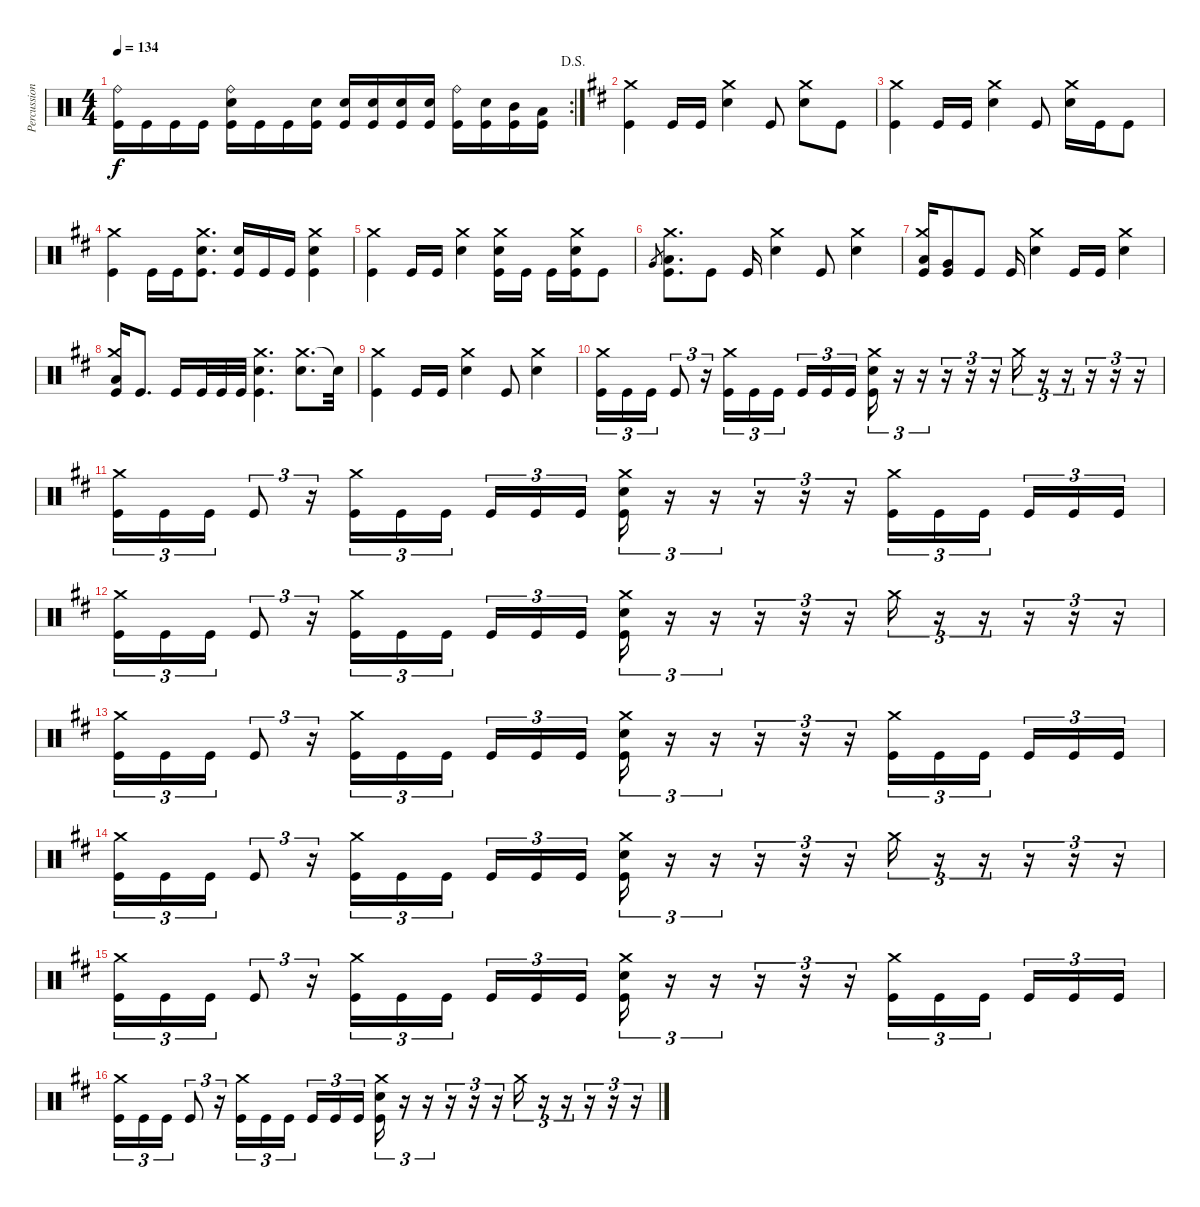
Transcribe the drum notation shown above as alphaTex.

\track ("Percussion" "Percussion") {instrument percussion}
\staff {score}
\articulation defaults
\rc 2
\ts (4 4)
\jump dalsegno
\tempo 134
\clef neutral
\ks c
("Ride (bell)" "Kick (hit)").16{dy f} "Kick (hit)".16 "Kick (hit)".16 "Kick (hit)".16 ("Ride (bell)" "Electric Snare (hit)" "Kick (hit)").16 "Kick (hit)".16 "Kick (hit)".16 ("Electric Snare (hit)" "Kick (hit)").16 ("Electric Snare (hit)" "Kick (hit)").16 ("Electric Snare (hit)" "Kick (hit)").16 ("Electric Snare (hit)" "Kick (hit)").16 ("Electric Snare (hit)" "Kick (hit)").16 ("Ride (bell)" "Kick (hit)").16 ("Electric Snare (hit)" "Kick (hit)").16 ("Mid Tom (hit)" "Kick (hit)").16 ("Low Tom (hit)" "Kick (hit)").16 |
\ks d
("Crash medium (hit)" "Kick (hit)").4 "Kick (hit)".16 "Kick (hit)".16 ("Crash medium (hit)" "Electric Snare (hit)").4 "Kick (hit)".8 ("Crash medium (hit)" "Electric Snare (hit)").8 "Kick (hit)".8 |
("Crash medium (hit)" "Kick (hit)").4 "Kick (hit)".16 "Kick (hit)".16 ("Crash medium (hit)" "Electric Snare (hit)").4 "Kick (hit)".8 ("Crash medium (hit)" "Electric Snare (hit)").16 "Kick (hit)".16 "Kick (hit)".8 |
("Crash medium (hit)" "Kick (hit)").4 "Kick (hit)".16 "Kick (hit)".16 ("Crash medium (hit)" "Electric Snare (hit)" "Kick (hit)").8{d} ("Electric Snare (hit)" "Kick (hit)").16 "Kick (hit)".16 "Kick (hit)".16 ("Crash medium (hit)" "Electric Snare (hit)" "Kick (hit)").4 |
("Crash medium (hit)" "Kick (hit)").4 "Kick (hit)".16 "Kick (hit)".16 ("Crash medium (hit)" "Electric Snare (hit)").4 ("Crash medium (hit)" "Electric Snare (hit)" "Kick (hit)").16 "Kick (hit)".16 "Kick (hit)".16 ("Crash medium (hit)" "Electric Snare (hit)" "Kick (hit)").16 "Kick (hit)".8 |
"Very Low Tom (hit)".8{gr} ("Crash medium (hit)" "Low Tom (hit)" "Kick (hit)").8{d} "Kick (hit)".8 "Kick (hit)".16 ("Crash medium (hit)" "Electric Snare (hit)").4 "Kick (hit)".8 ("Crash medium (hit)" "Electric Snare (hit)").4 |
("Crash medium (hit)" "Low Floor Tom (hit)" "Kick (hit)").16 ("Very Low Tom (hit)" "Kick (hit)").8 "Kick (hit)".8 "Kick (hit)".16 ("Crash medium (hit)" "Electric Snare (hit)").4 "Kick (hit)".16 "Kick (hit)".16 ("Crash medium (hit)" "Electric Snare (hit)").4 |
("Crash medium (hit)" "Low Floor Tom (hit)" "Kick (hit)").16 "Kick (hit)".8{d} "Kick (hit)".16 "Kick (hit)".32 "Kick (hit)".32 "Kick (hit)".32 ("Crash medium (hit)" "Electric Snare (hit)" "Kick (hit)").4{d} ("Crash medium (hit)" "Electric Snare (hit)").8{d} "Snare (hit)"{t}.32 |
("Crash medium (hit)" "Kick (hit)").4 "Kick (hit)".16 "Kick (hit)".16 ("Crash medium (hit)" "Electric Snare (hit)").4 "Kick (hit)".8 ("Crash medium (hit)" "Electric Snare (hit)").4 |
("Crash medium (hit)" "Kick (hit)").16{tu (3 2)} "Kick (hit)".16{tu (3 2)} "Kick (hit)".16{tu (3 2)} "Kick (hit)".8{tu (3 2)} r.16{tu (3 2)} ("Crash medium (hit)" "Kick (hit)").16{tu (3 2)} "Kick (hit)".16{tu (3 2)} "Kick (hit)".16{tu (3 2) beam splitsecondary} "Kick (hit)".16{tu (3 2)} "Kick (hit)".16{tu (3 2)} "Kick (hit)".16{tu (3 2)} ("Crash medium (hit)" "Electric Snare (hit)" "Kick (hit)").16{tu (3 2)} r.16{tu (3 2)} r.16{tu (3 2)} r.16{tu (3 2)} r.16{tu (3 2)} r.16{tu (3 2)} "Crash medium (hit)".16{tu (3 2)} r.16{tu (3 2)} r.16{tu (3 2)} r.16{tu (3 2)} r.16{tu (3 2)} r.16{tu (3 2)} |
("Crash medium (hit)" "Kick (hit)").16{tu (3 2)} "Kick (hit)".16{tu (3 2)} "Kick (hit)".16{tu (3 2)} "Kick (hit)".8{tu (3 2)} r.16{tu (3 2)} ("Crash medium (hit)" "Kick (hit)").16{tu (3 2)} "Kick (hit)".16{tu (3 2)} "Kick (hit)".16{tu (3 2) beam splitsecondary} "Kick (hit)".16{tu (3 2)} "Kick (hit)".16{tu (3 2)} "Kick (hit)".16{tu (3 2)} ("Crash medium (hit)" "Electric Snare (hit)" "Kick (hit)").16{tu (3 2)} r.16{tu (3 2)} r.16{tu (3 2)} r.16{tu (3 2)} r.16{tu (3 2)} r.16{tu (3 2)} ("Crash medium (hit)" "Kick (hit)").16{tu (3 2)} "Kick (hit)".16{tu (3 2)} "Kick (hit)".16{tu (3 2) beam splitsecondary} "Kick (hit)".16{tu (3 2)} "Kick (hit)".16{tu (3 2)} "Kick (hit)".16{tu (3 2)} |
("Crash medium (hit)" "Kick (hit)").16{tu (3 2)} "Kick (hit)".16{tu (3 2)} "Kick (hit)".16{tu (3 2)} "Kick (hit)".8{tu (3 2)} r.16{tu (3 2)} ("Crash medium (hit)" "Kick (hit)").16{tu (3 2)} "Kick (hit)".16{tu (3 2)} "Kick (hit)".16{tu (3 2) beam splitsecondary} "Kick (hit)".16{tu (3 2)} "Kick (hit)".16{tu (3 2)} "Kick (hit)".16{tu (3 2)} ("Crash medium (hit)" "Electric Snare (hit)" "Kick (hit)").16{tu (3 2)} r.16{tu (3 2)} r.16{tu (3 2)} r.16{tu (3 2)} r.16{tu (3 2)} r.16{tu (3 2)} "Crash medium (hit)".16{tu (3 2)} r.16{tu (3 2)} r.16{tu (3 2)} r.16{tu (3 2)} r.16{tu (3 2)} r.16{tu (3 2)} |
("Crash medium (hit)" "Kick (hit)").16{tu (3 2)} "Kick (hit)".16{tu (3 2)} "Kick (hit)".16{tu (3 2)} "Kick (hit)".8{tu (3 2)} r.16{tu (3 2)} ("Crash medium (hit)" "Kick (hit)").16{tu (3 2)} "Kick (hit)".16{tu (3 2)} "Kick (hit)".16{tu (3 2) beam splitsecondary} "Kick (hit)".16{tu (3 2)} "Kick (hit)".16{tu (3 2)} "Kick (hit)".16{tu (3 2)} ("Crash medium (hit)" "Electric Snare (hit)" "Kick (hit)").16{tu (3 2)} r.16{tu (3 2)} r.16{tu (3 2)} r.16{tu (3 2)} r.16{tu (3 2)} r.16{tu (3 2)} ("Crash medium (hit)" "Kick (hit)").16{tu (3 2)} "Kick (hit)".16{tu (3 2)} "Kick (hit)".16{tu (3 2) beam splitsecondary} "Kick (hit)".16{tu (3 2)} "Kick (hit)".16{tu (3 2)} "Kick (hit)".16{tu (3 2)} |
("Crash medium (hit)" "Kick (hit)").16{tu (3 2)} "Kick (hit)".16{tu (3 2)} "Kick (hit)".16{tu (3 2)} "Kick (hit)".8{tu (3 2)} r.16{tu (3 2)} ("Crash medium (hit)" "Kick (hit)").16{tu (3 2)} "Kick (hit)".16{tu (3 2)} "Kick (hit)".16{tu (3 2) beam splitsecondary} "Kick (hit)".16{tu (3 2)} "Kick (hit)".16{tu (3 2)} "Kick (hit)".16{tu (3 2)} ("Crash medium (hit)" "Electric Snare (hit)" "Kick (hit)").16{tu (3 2)} r.16{tu (3 2)} r.16{tu (3 2)} r.16{tu (3 2)} r.16{tu (3 2)} r.16{tu (3 2)} "Crash medium (hit)".16{tu (3 2)} r.16{tu (3 2)} r.16{tu (3 2)} r.16{tu (3 2)} r.16{tu (3 2)} r.16{tu (3 2)} |
("Crash medium (hit)" "Kick (hit)").16{tu (3 2)} "Kick (hit)".16{tu (3 2)} "Kick (hit)".16{tu (3 2)} "Kick (hit)".8{tu (3 2)} r.16{tu (3 2)} ("Crash medium (hit)" "Kick (hit)").16{tu (3 2)} "Kick (hit)".16{tu (3 2)} "Kick (hit)".16{tu (3 2) beam splitsecondary} "Kick (hit)".16{tu (3 2)} "Kick (hit)".16{tu (3 2)} "Kick (hit)".16{tu (3 2)} ("Crash medium (hit)" "Electric Snare (hit)" "Kick (hit)").16{tu (3 2)} r.16{tu (3 2)} r.16{tu (3 2)} r.16{tu (3 2)} r.16{tu (3 2)} r.16{tu (3 2)} ("Crash medium (hit)" "Kick (hit)").16{tu (3 2)} "Kick (hit)".16{tu (3 2)} "Kick (hit)".16{tu (3 2) beam splitsecondary} "Kick (hit)".16{tu (3 2)} "Kick (hit)".16{tu (3 2)} "Kick (hit)".16{tu (3 2)} |
("Crash medium (hit)" "Kick (hit)").16{tu (3 2)} "Kick (hit)".16{tu (3 2)} "Kick (hit)".16{tu (3 2)} "Kick (hit)".8{tu (3 2)} r.16{tu (3 2)} ("Crash medium (hit)" "Kick (hit)").16{tu (3 2)} "Kick (hit)".16{tu (3 2)} "Kick (hit)".16{tu (3 2) beam splitsecondary} "Kick (hit)".16{tu (3 2)} "Kick (hit)".16{tu (3 2)} "Kick (hit)".16{tu (3 2)} ("Crash medium (hit)" "Electric Snare (hit)" "Kick (hit)").16{tu (3 2)} r.16{tu (3 2)} r.16{tu (3 2)} r.16{tu (3 2)} r.16{tu (3 2)} r.16{tu (3 2)} "Crash medium (hit)".16{tu (3 2)} r.16{tu (3 2)} r.16{tu (3 2)} r.16{tu (3 2)} r.16{tu (3 2)} r.16{tu (3 2)}
